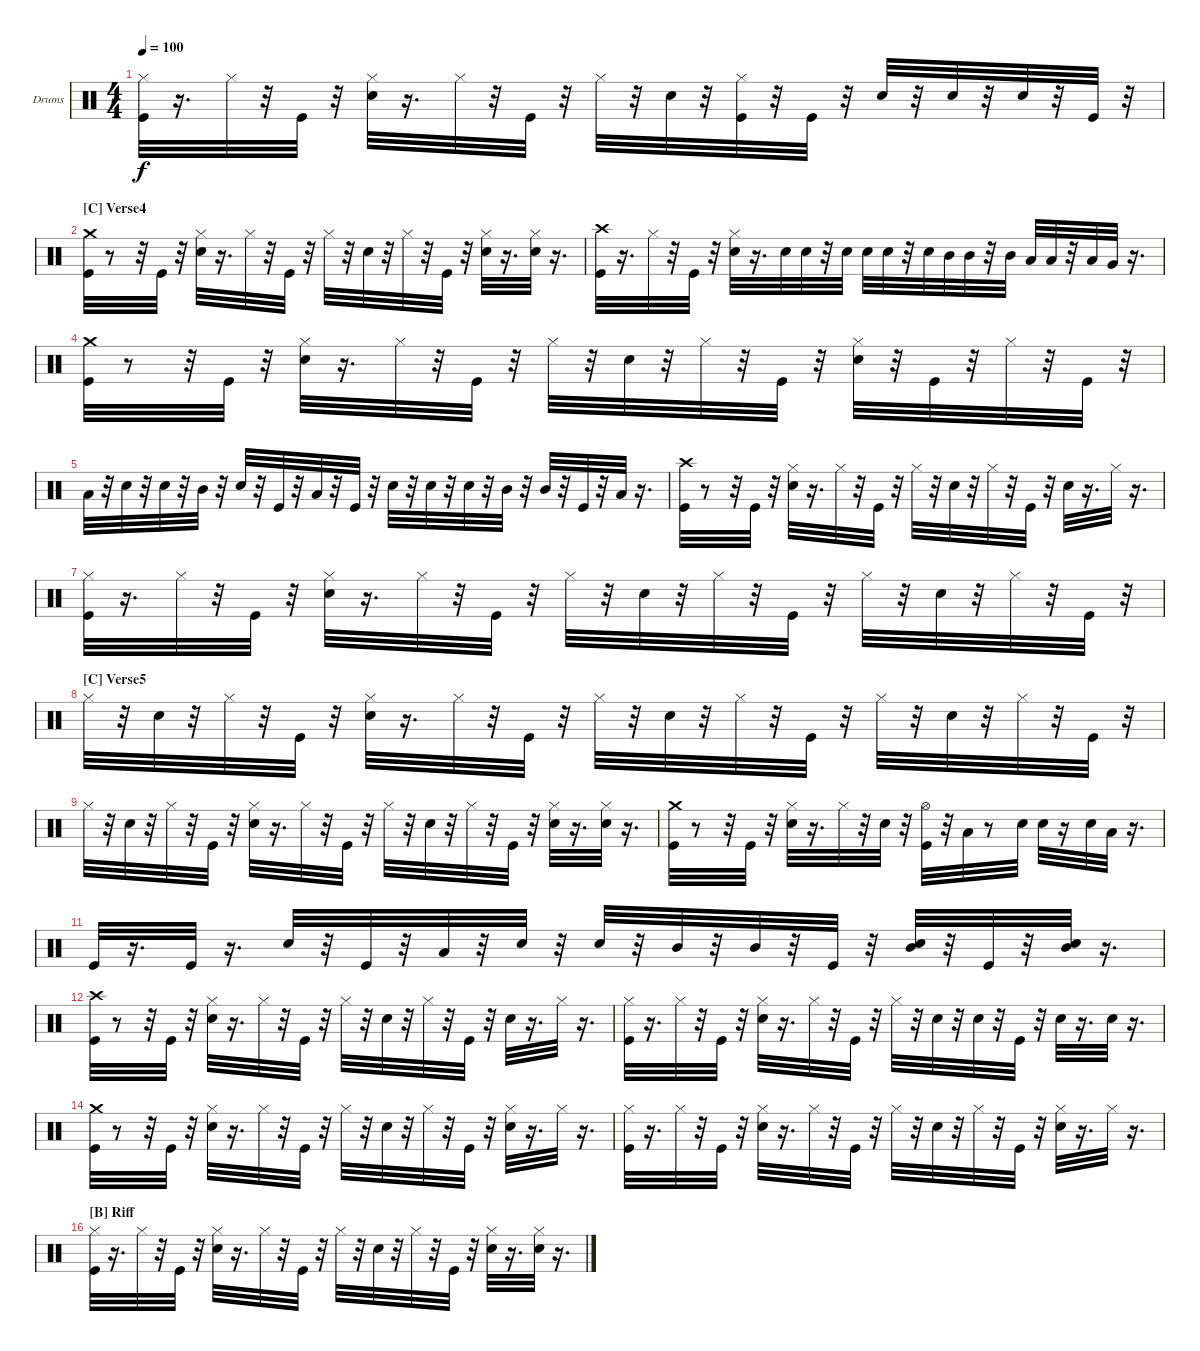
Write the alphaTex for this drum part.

\bracketExtendMode nobrackets
\firstSystemTrackNameOrientation horizontal
\otherSystemsTrackNameOrientation horizontal
\defaultBarNumberDisplay FirstOfSystem
\track ("Drumkit" "Drums") {instrument percussion}
\staff {score}
\articulation defaults
\ts (4 4)
\tempo 100
\clef neutral
\ks c
("Kick (hit)" "Hi-Hat (closed)").32{dy f} r.16{d} "Hi-Hat (closed)".32 r.32 "Kick (hit)".32 r.32 ("Snare (hit) 2" "Hi-Hat (closed)").32 r.16{d} "Hi-Hat (closed)".32 r.32 "Kick (hit)".32 r.32 "Hi-Hat (closed)".32 r.32 "Snare (hit) 2".32 r.32 ("Kick (hit)" "Hi-Hat (closed)").32 r.32 "Kick (hit)".32 r.32 "Snare (hit) 2".32 r.32 "Snare (hit) 2".32 r.32 "Snare (hit) 2".32 r.32 "Kick (hit)".32 r.32 |
\section ("C" "Verse4")
\scale
0.318274 ("Kick (hit)" "Crash medium (hit)").32 r.8 r.32 "Kick (hit)".32 r.32 ("Hi-Hat (closed)" "Snare (hit) 2").32 r.16{d} "Hi-Hat (closed)".32 r.32 "Kick (hit)".32 r.32 "Hi-Hat (closed)".32 r.32 "Snare (hit) 2".32 r.32 "Hi-Hat (closed)".32 r.32 "Kick (hit)".32 r.32 ("Hi-Hat (closed)" "Snare (hit) 2").32 r.16{d} ("Hi-Hat (closed)" "Snare (hit) 2").32 r.16{d} |
\scale
0.303895 ("Kick (hit)" "Crash high (hit)").32 r.16{d} "Hi-Hat (closed)".32 r.32 "Kick (hit)".32 r.32 ("Snare (hit) 2" "Hi-Hat (closed)").32 r.16{d} "Snare (hit) 2".32 "Snare (hit) 2".32 r.32 "Snare (hit) 2".32 "Snare (hit) 2".32 "Snare (hit) 2".32 r.32 "Snare (hit) 2".32 "Mid Tom (hit)".32 "Mid Tom (hit)".32 r.32 "Mid Tom (hit)".32 "Low Tom (hit)".32 "Low Tom (hit)".32 r.32 "Low Tom (hit)".32 "Very Low Tom (hit)".32 r.16{d} |
\scale
0.377778 ("Kick (hit)" "Crash medium (hit)").32 r.8 r.32 "Kick (hit)".32 r.32 ("Hi-Hat (closed)" "Snare (hit) 2").32 r.16{d} "Hi-Hat (closed)".32 r.32 "Kick (hit)".32 r.32 "Hi-Hat (closed)".32 r.32 "Snare (hit) 2".32 r.32 "Hi-Hat (closed)".32 r.32 "Kick (hit)".32 r.32 ("Hi-Hat (closed)" "Snare (hit) 2").32 r.32 "Kick (hit)".32 r.32 "Hi-Hat (closed)".32 r.32 "Kick (hit)".32 r.32 |
"Low Tom (hit)".32 r.32 "Snare (hit) 2".32 r.32 "Snare (hit) 2".32 r.32 "Mid Tom (hit)".32 r.32 "Snare (hit) 2".32 r.32 "Kick (hit)".32 r.32 "Low Tom (hit)".32 r.32 "Kick (hit)".32 r.32 "Snare (hit) 2".32 r.32 "Snare (hit) 2".32 r.32 "Snare (hit) 2".32 r.32 "Mid Tom (hit)".32 r.32 "Mid Tom (hit)".32 r.32 "Kick (hit)".32 r.32 "Low Tom (hit)".32 r.16{d} |
("Crash high (hit)" "Kick (hit)").32 r.8 r.32 "Kick (hit)".32 r.32 ("Hi-Hat (closed)" "Snare (hit) 2").32 r.16{d} "Hi-Hat (closed)".32 r.32 "Kick (hit)".32 r.32 "Hi-Hat (closed)".32 r.32 "Snare (hit) 2".32 r.32 "Hi-Hat (closed)".32 r.32 "Kick (hit)".32 r.32 "Snare (hit) 2".32 r.16{d} "Hi-Hat (closed)".32 r.16{d} |
("Kick (hit)" "Hi-Hat (closed)").32 r.16{d} "Hi-Hat (closed)".32 r.32 "Kick (hit)".32 r.32 ("Snare (hit) 2" "Hi-Hat (closed)").32 r.16{d} "Hi-Hat (closed)".32 r.32 "Kick (hit)".32 r.32 "Hi-Hat (closed)".32 r.32 "Snare (hit) 2".32 r.32 "Hi-Hat (closed)".32 r.32 "Kick (hit)".32 r.32 "Hi-Hat (closed)".32 r.32 "Snare (hit) 2".32 r.32 "Hi-Hat (closed)".32 r.32 "Kick (hit)".32 r.32 |
\section ("C" "Verse5")
"Hi-Hat (closed)".32 r.32 "Snare (hit) 2".32 r.32 "Hi-Hat (closed)".32 r.32 "Kick (hit)".32 r.32 ("Snare (hit) 2" "Hi-Hat (closed)").32 r.16{d} "Hi-Hat (closed)".32 r.32 "Kick (hit)".32 r.32 "Hi-Hat (closed)".32 r.32 "Snare (hit) 2".32 r.32 "Hi-Hat (closed)".32 r.32 "Kick (hit)".32 r.32 "Hi-Hat (closed)".32 r.32 "Snare (hit) 2".32 r.32 "Hi-Hat (closed)".32 r.32 "Kick (hit)".32 r.32 |
"Hi-Hat (closed)".32 r.32 "Snare (hit) 2".32 r.32 "Hi-Hat (closed)".32 r.32 "Kick (hit)".32 r.32 ("Snare (hit) 2" "Hi-Hat (closed)").32 r.16{d} "Hi-Hat (closed)".32 r.32 "Kick (hit)".32 r.32 "Hi-Hat (closed)".32 r.32 "Snare (hit) 2".32 r.32 "Hi-Hat (closed)".32 r.32 "Kick (hit)".32 r.32 ("Snare (hit) 2" "Hi-Hat (closed)").32 r.16{d} ("Snare (hit) 2" "Hi-Hat (closed)").32 r.16{d} |
("Kick (hit)" "Crash medium (hit)").32 r.8 r.32 "Kick (hit)".32 r.32 ("Snare (hit) 2" "Hi-Hat (closed)").32 r.16{d} "Hi-Hat (closed)".32 r.32 "Snare (hit) 2".32 r.32 ("Kick (hit)" "Hi-Hat (open)").32 r.32 "Low Tom (hit)".32 r.8 "Snare (hit) 2".32 "Snare (hit) 2".32 r.16 "Snare (hit) 2".32 "Low Tom (hit)".32 r.16{d} |
"Kick (hit)".32 r.16{d} "Kick (hit)".32 r.16{d} "Snare (hit) 2".32 r.32 "Kick (hit)".32 r.32 "Low Tom (hit)".32 r.32 "Snare (hit) 2".32 r.32 "Snare (hit) 2".32 r.32 "Mid Tom (hit)".32 r.32 "Mid Tom (hit)".32 r.32 "Kick (hit)".32 r.32 ("Mid Tom (hit)" "Snare (hit) 2").32 r.32 "Kick (hit)".32 r.32 ("Mid Tom (hit)" "Snare (hit) 2").32 r.16{d} |
("Kick (hit)" "Crash high (hit)").32 r.8 r.32 "Kick (hit)".32 r.32 ("Hi-Hat (closed)" "Snare (hit) 2").32 r.16{d} "Hi-Hat (closed)".32 r.32 "Kick (hit)".32 r.32 "Hi-Hat (closed)".32 r.32 "Snare (hit) 2".32 r.32 "Hi-Hat (closed)".32 r.32 "Kick (hit)".32 r.32 "Snare (hit) 2".32 r.16{d} "Hi-Hat (closed)".32 r.16{d} |
("Kick (hit)" "Hi-Hat (closed)").32 r.16{d} "Hi-Hat (closed)".32 r.32 "Kick (hit)".32 r.32 ("Snare (hit) 2" "Hi-Hat (closed)").32 r.16{d} "Hi-Hat (closed)".32 r.32 "Kick (hit)".32 r.32 "Hi-Hat (closed)".32 r.32 "Snare (hit) 2".32 r.32 "Snare (hit) 2".32 r.32 "Kick (hit)".32 r.32 "Snare (hit) 2".32 r.16{d} "Snare (hit) 2".32 r.16{d} |
("Kick (hit)" "Crash medium (hit)").32 r.8 r.32 "Kick (hit)".32 r.32 ("Hi-Hat (closed)" "Snare (hit) 2").32 r.16{d} "Hi-Hat (closed)".32 r.32 "Kick (hit)".32 r.32 "Hi-Hat (closed)".32 r.32 "Snare (hit) 2".32 r.32 "Hi-Hat (closed)".32 r.32 "Kick (hit)".32 r.32 ("Hi-Hat (closed)" "Snare (hit) 2").32 r.16{d} "Hi-Hat (closed)".32 r.16{d} |
("Kick (hit)" "Hi-Hat (closed)").32 r.16{d} "Hi-Hat (closed)".32 r.32 "Kick (hit)".32 r.32 ("Snare (hit) 2" "Hi-Hat (closed)").32 r.16{d} "Hi-Hat (closed)".32 r.32 "Kick (hit)".32 r.32 "Hi-Hat (closed)".32 r.32 "Snare (hit) 2".32 r.32 "Hi-Hat (closed)".32 r.32 "Kick (hit)".32 r.32 ("Snare (hit) 2" "Hi-Hat (closed)").32 r.16{d} "Hi-Hat (closed)".32 r.16{d} |
\section ("B" "Riff")
("Hi-Hat (closed)" "Kick (hit)").32 r.16{d} "Hi-Hat (closed)".32 r.32 "Kick (hit)".32 r.32 ("Hi-Hat (closed)" "Snare (hit) 2").32 r.16{d} "Hi-Hat (closed)".32 r.32 "Kick (hit)".32 r.32 "Hi-Hat (closed)".32 r.32 "Snare (hit) 2".32 r.32 "Hi-Hat (closed)".32 r.32 "Kick (hit)".32 r.32 ("Hi-Hat (closed)" "Snare (hit) 2").32 r.16{d} ("Hi-Hat (closed)" "Snare (hit) 2").32 r.16{d}
